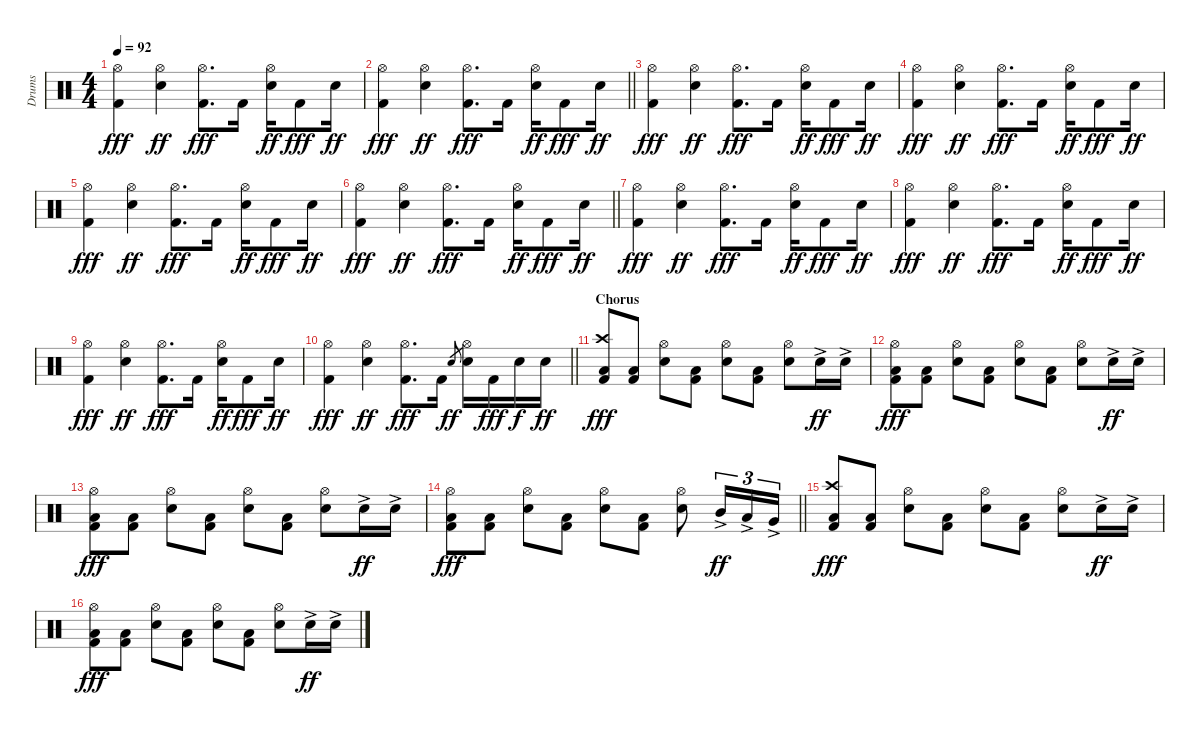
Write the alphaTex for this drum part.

\track ("Drums" "Drums") {instrument percussion}
\staff {score}
\articulation defaults
\ts (4 4)
\tempo 92
\clef neutral
\ks c
("Hi-Hat (open)" "Kick (hit) 2").4{dy fff} ("Hi-Hat (open)" "Electric Snare (hit)").4{dy ff} ("Hi-Hat (open)" "Kick (hit) 2").8{d dy fff} "Kick (hit) 2".16 ("Hi-Hat (open)" "Electric Snare (hit)").16{dy ff} "Kick (hit) 2".8{dy fff} "Electric Snare (hit)".16{dy ff} |
\barLineRight lightlight
("Hi-Hat (open)" "Kick (hit) 2").4{dy fff} ("Hi-Hat (open)" "Electric Snare (hit)").4{dy ff} ("Hi-Hat (open)" "Kick (hit) 2").8{d dy fff} "Kick (hit) 2".16 ("Hi-Hat (open)" "Electric Snare (hit)").16{dy ff} "Kick (hit) 2".8{dy fff} "Electric Snare (hit)".16{dy ff} |
\section ("" "")
("Hi-Hat (open)" "Kick (hit) 2").4{dy fff} ("Hi-Hat (open)" "Electric Snare (hit)").4{dy ff} ("Hi-Hat (open)" "Kick (hit) 2").8{d dy fff} "Kick (hit) 2".16 ("Hi-Hat (open)" "Electric Snare (hit)").16{dy ff} "Kick (hit) 2".8{dy fff} "Electric Snare (hit)".16{dy ff} |
("Hi-Hat (open)" "Kick (hit) 2").4{dy fff} ("Hi-Hat (open)" "Electric Snare (hit)").4{dy ff} ("Hi-Hat (open)" "Kick (hit) 2").8{d dy fff} "Kick (hit) 2".16 ("Hi-Hat (open)" "Electric Snare (hit)").16{dy ff} "Kick (hit) 2".8{dy fff} "Electric Snare (hit)".16{dy ff} |
("Hi-Hat (open)" "Kick (hit) 2").4{dy fff} ("Hi-Hat (open)" "Electric Snare (hit)").4{dy ff} ("Hi-Hat (open)" "Kick (hit) 2").8{d dy fff} "Kick (hit) 2".16 ("Hi-Hat (open)" "Electric Snare (hit)").16{dy ff} "Kick (hit) 2".8{dy fff} "Electric Snare (hit)".16{dy ff} |
\barLineRight lightlight
("Hi-Hat (open)" "Kick (hit) 2").4{dy fff} ("Hi-Hat (open)" "Electric Snare (hit)").4{dy ff} ("Hi-Hat (open)" "Kick (hit) 2").8{d dy fff} "Kick (hit) 2".16 ("Hi-Hat (open)" "Electric Snare (hit)").16{dy ff} "Kick (hit) 2".8{dy fff} "Electric Snare (hit)".16{dy ff} |
\section ("" "")
("Hi-Hat (open)" "Kick (hit) 2").4{dy fff} ("Hi-Hat (open)" "Electric Snare (hit)").4{dy ff} ("Hi-Hat (open)" "Kick (hit) 2").8{d dy fff} "Kick (hit) 2".16 ("Hi-Hat (open)" "Electric Snare (hit)").16{dy ff} "Kick (hit) 2".8{dy fff} "Electric Snare (hit)".16{dy ff} |
("Hi-Hat (open)" "Kick (hit) 2").4{dy fff} ("Hi-Hat (open)" "Electric Snare (hit)").4{dy ff} ("Hi-Hat (open)" "Kick (hit) 2").8{d dy fff} "Kick (hit) 2".16 ("Hi-Hat (open)" "Electric Snare (hit)").16{dy ff} "Kick (hit) 2".8{dy fff} "Electric Snare (hit)".16{dy ff} |
("Hi-Hat (open)" "Kick (hit) 2").4{dy fff} ("Hi-Hat (open)" "Electric Snare (hit)").4{dy ff} ("Hi-Hat (open)" "Kick (hit) 2").8{d dy fff} "Kick (hit) 2".16 ("Hi-Hat (open)" "Electric Snare (hit)").16{dy ff} "Kick (hit) 2".8{dy fff} "Electric Snare (hit)".16{dy ff} |
\barLineRight lightlight
("Hi-Hat (open)" "Kick (hit) 2").4{dy fff} ("Hi-Hat (open)" "Electric Snare (hit)").4{dy ff} ("Hi-Hat (open)" "Kick (hit) 2").8{d dy fff} "Kick (hit) 2".16 "Electric Snare (hit)".8{gr dy ff} ("Hi-Hat (open)" "Electric Snare (hit)").16 "Kick (hit) 2".16{dy fff} "Electric Snare (hit)".16{dy f} "Electric Snare (hit)".16{dy ff} |
\section ("" "Chorus")
("Crash high (hit)" "Low Floor Tom (hit)" "Kick (hit) 2").8{dy fff} ("Low Floor Tom (hit)" "Kick (hit) 2").8 ("Hi-Hat (open)" "Electric Snare (hit)").8 ("Low Floor Tom (hit)" "Kick (hit) 2").8 ("Hi-Hat (open)" "Electric Snare (hit)").8 ("Low Floor Tom (hit)" "Kick (hit) 2").8 ("Hi-Hat (open)" "Electric Snare (hit)").8 "Electric Snare (hit)"{ac}.16{dy ff} "Electric Snare (hit)"{ac}.16 |
("Hi-Hat (open)" "Low Floor Tom (hit)" "Kick (hit) 2").8{dy fff} ("Low Floor Tom (hit)" "Kick (hit) 2").8 ("Hi-Hat (open)" "Electric Snare (hit)").8 ("Low Floor Tom (hit)" "Kick (hit) 2").8 ("Hi-Hat (open)" "Electric Snare (hit)").8 ("Low Floor Tom (hit)" "Kick (hit) 2").8 ("Hi-Hat (open)" "Electric Snare (hit)").8 "Electric Snare (hit)"{ac}.16{dy ff} "Electric Snare (hit)"{ac}.16 |
("Hi-Hat (open)" "Low Floor Tom (hit)" "Kick (hit) 2").8{dy fff} ("Low Floor Tom (hit)" "Kick (hit) 2").8 ("Hi-Hat (open)" "Electric Snare (hit)").8 ("Low Floor Tom (hit)" "Kick (hit) 2").8 ("Hi-Hat (open)" "Electric Snare (hit)").8 ("Low Floor Tom (hit)" "Kick (hit) 2").8 ("Hi-Hat (open)" "Electric Snare (hit)").8 "Electric Snare (hit)"{ac}.16{dy ff} "Electric Snare (hit)"{ac}.16 |
\barLineRight lightlight
("Hi-Hat (open)" "Low Floor Tom (hit)" "Kick (hit) 2").8{dy fff} ("Low Floor Tom (hit)" "Kick (hit) 2").8 ("Hi-Hat (open)" "Electric Snare (hit)").8 ("Low Floor Tom (hit)" "Kick (hit) 2").8 ("Hi-Hat (open)" "Electric Snare (hit)").8 ("Low Floor Tom (hit)" "Kick (hit) 2").8 ("Hi-Hat (open)" "Electric Snare (hit)").8 "Mid Tom (hit)"{ac}.16{tu (3 2) dy ff} "Low Tom (hit)"{ac}.16{tu (3 2)} "Very Low Tom (hit)"{ac}.16{tu (3 2)} |
\section ("" "")
("Crash high (hit)" "Low Floor Tom (hit)" "Kick (hit) 2").8{dy fff} ("Low Floor Tom (hit)" "Kick (hit) 2").8 ("Hi-Hat (open)" "Electric Snare (hit)").8 ("Low Floor Tom (hit)" "Kick (hit) 2").8 ("Hi-Hat (open)" "Electric Snare (hit)").8 ("Low Floor Tom (hit)" "Kick (hit) 2").8 ("Hi-Hat (open)" "Electric Snare (hit)").8 "Electric Snare (hit)"{ac}.16{dy ff} "Electric Snare (hit)"{ac}.16 |
("Hi-Hat (open)" "Low Floor Tom (hit)" "Kick (hit) 2").8{dy fff} ("Low Floor Tom (hit)" "Kick (hit) 2").8 ("Hi-Hat (open)" "Electric Snare (hit)").8 ("Low Floor Tom (hit)" "Kick (hit) 2").8 ("Hi-Hat (open)" "Electric Snare (hit)").8 ("Low Floor Tom (hit)" "Kick (hit) 2").8 ("Hi-Hat (open)" "Electric Snare (hit)").8 "Electric Snare (hit)"{ac}.16{dy ff} "Electric Snare (hit)"{ac}.16
